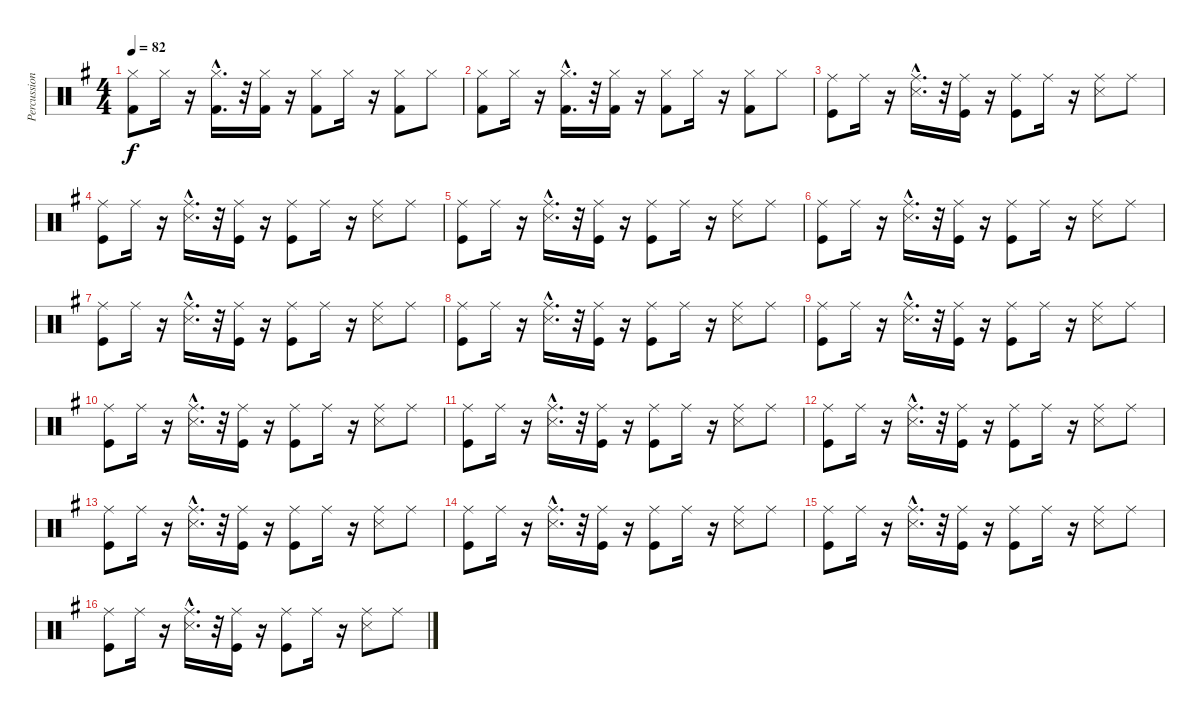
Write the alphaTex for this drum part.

\track ("Percussion" "Percussion") {instrument percussion}
\staff {score}
\articulation defaults
\ts (4 4)
\tempo 82
\clef neutral
\ks g
("Kick (hit) 2" "Hi-Hat (closed)").8{dy f} "Hi-Hat (closed)".16 r.16 ("Kick (hit) 2"{hac} "Hi-Hat (closed)"{hac}).16{d} r.32 ("Hi-Hat (closed)" "Kick (hit) 2").16 r.16 ("Hi-Hat (closed)" "Kick (hit) 2").8 "Hi-Hat (closed)".16 r.16 ("Kick (hit) 2" "Hi-Hat (closed)").8 "Hi-Hat (closed)".8 |
("Kick (hit) 2" "Hi-Hat (closed)").8 "Hi-Hat (closed)".16 r.16 ("Kick (hit) 2"{hac} "Hi-Hat (closed)"{hac}).16{d} r.32 ("Hi-Hat (closed)" "Kick (hit) 2").16 r.16 ("Hi-Hat (closed)" "Kick (hit) 2").8 "Hi-Hat (closed)".16 r.16 ("Kick (hit) 2" "Hi-Hat (closed)").8 "Hi-Hat (closed)".8 |
("Kick (hit)" "Ride (middle)").8 "Ride (middle)".16 r.16 ("Snare (side stick) 3"{hac} "Ride (middle)"{hac}).16{d} r.32 ("Ride (middle)" "Kick (hit)").16 r.16 ("Ride (middle)" "Kick (hit)").8 "Ride (middle)".16 r.16 ("Snare (side stick) 3" "Ride (middle)").8 "Ride (middle)".8 |
("Kick (hit)" "Ride (middle)").8 "Ride (middle)".16 r.16 ("Snare (side stick) 3"{hac} "Ride (middle)"{hac}).16{d} r.32 ("Ride (middle)" "Kick (hit)").16 r.16 ("Ride (middle)" "Kick (hit)").8 "Ride (middle)".16 r.16 ("Snare (side stick) 3" "Ride (middle)").8 "Ride (middle)".8 |
("Kick (hit)" "Ride (middle)").8 "Ride (middle)".16 r.16 ("Snare (side stick) 3"{hac} "Ride (middle)"{hac}).16{d} r.32 ("Ride (middle)" "Kick (hit)").16 r.16 ("Ride (middle)" "Kick (hit)").8 "Ride (middle)".16 r.16 ("Snare (side stick) 3" "Ride (middle)").8 "Ride (middle)".8 |
("Kick (hit)" "Ride (middle)").8 "Ride (middle)".16 r.16 ("Snare (side stick) 3"{hac} "Ride (middle)"{hac}).16{d} r.32 ("Ride (middle)" "Kick (hit)").16 r.16 ("Ride (middle)" "Kick (hit)").8 "Ride (middle)".16 r.16 ("Snare (side stick) 3" "Ride (middle)").8 "Ride (middle)".8 |
("Kick (hit)" "Ride (middle)").8 "Ride (middle)".16 r.16 ("Snare (side stick) 3"{hac} "Ride (middle)"{hac}).16{d} r.32 ("Ride (middle)" "Kick (hit)").16 r.16 ("Ride (middle)" "Kick (hit)").8 "Ride (middle)".16 r.16 ("Snare (side stick) 3" "Ride (middle)").8 "Ride (middle)".8 |
("Kick (hit)" "Ride (middle)").8 "Ride (middle)".16 r.16 ("Snare (side stick) 3"{hac} "Ride (middle)"{hac}).16{d} r.32 ("Ride (middle)" "Kick (hit)").16 r.16 ("Ride (middle)" "Kick (hit)").8 "Ride (middle)".16 r.16 ("Snare (side stick) 3" "Ride (middle)").8 "Ride (middle)".8 |
("Kick (hit)" "Ride (middle)").8 "Ride (middle)".16 r.16 ("Snare (side stick) 3"{hac} "Ride (middle)"{hac}).16{d} r.32 ("Ride (middle)" "Kick (hit)").16 r.16 ("Ride (middle)" "Kick (hit)").8 "Ride (middle)".16 r.16 ("Snare (side stick) 3" "Ride (middle)").8 "Ride (middle)".8 |
("Kick (hit)" "Ride (middle)").8 "Ride (middle)".16 r.16 ("Snare (side stick) 3"{hac} "Ride (middle)"{hac}).16{d} r.32 ("Ride (middle)" "Kick (hit)").16 r.16 ("Ride (middle)" "Kick (hit)").8 "Ride (middle)".16 r.16 ("Snare (side stick) 3" "Ride (middle)").8 "Ride (middle)".8 |
("Kick (hit)" "Ride (middle)").8 "Ride (middle)".16 r.16 ("Snare (side stick) 3"{hac} "Ride (middle)"{hac}).16{d} r.32 ("Ride (middle)" "Kick (hit)").16 r.16 ("Ride (middle)" "Kick (hit)").8 "Ride (middle)".16 r.16 ("Snare (side stick) 3" "Ride (middle)").8 "Ride (middle)".8 |
("Kick (hit)" "Ride (middle)").8 "Ride (middle)".16 r.16 ("Snare (side stick) 3"{hac} "Ride (middle)"{hac}).16{d} r.32 ("Ride (middle)" "Kick (hit)").16 r.16 ("Ride (middle)" "Kick (hit)").8 "Ride (middle)".16 r.16 ("Snare (side stick) 3" "Ride (middle)").8 "Ride (middle)".8 |
("Kick (hit)" "Ride (middle)").8 "Ride (middle)".16 r.16 ("Snare (side stick) 3"{hac} "Ride (middle)"{hac}).16{d} r.32 ("Ride (middle)" "Kick (hit)").16 r.16 ("Ride (middle)" "Kick (hit)").8 "Ride (middle)".16 r.16 ("Snare (side stick) 3" "Ride (middle)").8 "Ride (middle)".8 |
("Kick (hit)" "Ride (middle)").8 "Ride (middle)".16 r.16 ("Snare (side stick) 3"{hac} "Ride (middle)"{hac}).16{d} r.32 ("Ride (middle)" "Kick (hit)").16 r.16 ("Ride (middle)" "Kick (hit)").8 "Ride (middle)".16 r.16 ("Snare (side stick) 3" "Ride (middle)").8 "Ride (middle)".8 |
("Kick (hit)" "Ride (middle)").8 "Ride (middle)".16 r.16 ("Snare (side stick) 3"{hac} "Ride (middle)"{hac}).16{d} r.32 ("Ride (middle)" "Kick (hit)").16 r.16 ("Ride (middle)" "Kick (hit)").8 "Ride (middle)".16 r.16 ("Snare (side stick) 3" "Ride (middle)").8 "Ride (middle)".8 |
("Kick (hit)" "Ride (middle)").8 "Ride (middle)".16 r.16 ("Snare (side stick) 3"{hac} "Ride (middle)"{hac}).16{d} r.32 ("Ride (middle)" "Kick (hit)").16 r.16 ("Ride (middle)" "Kick (hit)").8 "Ride (middle)".16 r.16 ("Snare (side stick) 3" "Ride (middle)").8 "Ride (middle)".8
